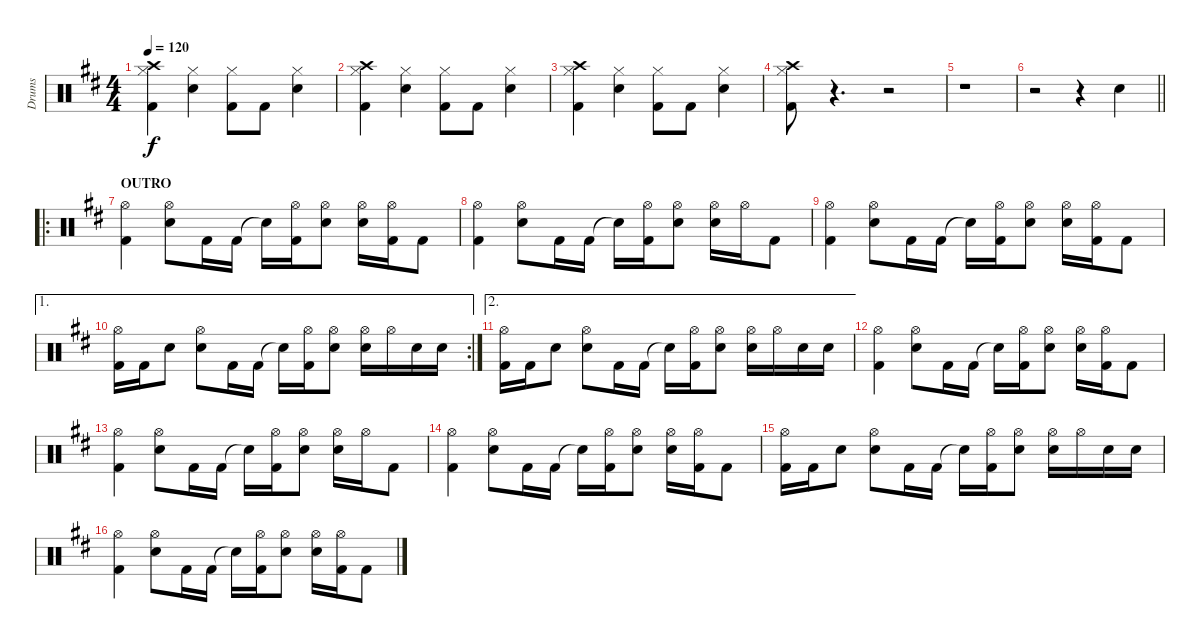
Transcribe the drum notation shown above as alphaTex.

\track ("Drums" "Drums") {instrument percussion}
\staff {score}
\articulation defaults
\ts (4 4)
\tempo 120
\clef neutral
\ks d
("Crash high (hit)" "Hi-Hat (closed)" "Kick (hit) 2").4{dy f} ("Hi-Hat (closed)" "Electric Snare (hit)").4 ("Hi-Hat (closed)" "Kick (hit) 2").8 "Kick (hit) 2".8 ("Hi-Hat (closed)" "Electric Snare (hit)").4 |
("Crash high (hit)" "Hi-Hat (closed)" "Kick (hit) 2").4 ("Hi-Hat (closed)" "Electric Snare (hit)").4 ("Hi-Hat (closed)" "Kick (hit) 2").8 "Kick (hit) 2".8 ("Hi-Hat (closed)" "Electric Snare (hit)").4 |
("Crash high (hit)" "Hi-Hat (closed)" "Kick (hit) 2").4 ("Hi-Hat (closed)" "Electric Snare (hit)").4 ("Hi-Hat (closed)" "Kick (hit) 2").8 "Kick (hit) 2".8 ("Hi-Hat (closed)" "Electric Snare (hit)").4 |
("Crash high (hit)" "Hi-Hat (closed)" "Kick (hit) 2").8 r.4{d} r.2 |
r.1 |
\barLineRight lightlight
r.2 r.4 "Electric Snare (hit)".4 |
\ro
\section ("" "OUTRO")
("Hi-Hat (open)" "Kick (hit) 2").4 ("Hi-Hat (open)" "Electric Snare (hit)").8 "Kick (hit) 2".16 "Kick (hit) 2".16 "Snare (hit)"{t}.16 ("Hi-Hat (open)" "Kick (hit) 2").16 ("Hi-Hat (open)" "Electric Snare (hit)").8 ("Hi-Hat (open)" "Electric Snare (hit)").16 ("Hi-Hat (open)" "Kick (hit) 2").16 "Kick (hit) 2".8 |
("Hi-Hat (open)" "Kick (hit) 2").4 ("Hi-Hat (open)" "Electric Snare (hit)").8 "Kick (hit) 2".16 "Kick (hit) 2".16 "Snare (hit)"{t}.16 ("Hi-Hat (open)" "Kick (hit) 2").16 ("Hi-Hat (open)" "Electric Snare (hit)").8 ("Hi-Hat (open)" "Electric Snare (hit)").16 "Hi-Hat (open)".16 "Kick (hit) 2".8 |
("Hi-Hat (open)" "Kick (hit) 2").4 ("Hi-Hat (open)" "Electric Snare (hit)").8 "Kick (hit) 2".16 "Kick (hit) 2".16 "Snare (hit)"{t}.16 ("Hi-Hat (open)" "Kick (hit) 2").16 ("Hi-Hat (open)" "Electric Snare (hit)").8 ("Hi-Hat (open)" "Electric Snare (hit)").16 ("Hi-Hat (open)" "Kick (hit) 2").16 "Kick (hit) 2".8 |
\ae 1
\rc 2
("Hi-Hat (open)" "Kick (hit) 2").16 "Kick (hit) 2".16 "Electric Snare (hit)".8 ("Hi-Hat (open)" "Electric Snare (hit)").8 "Kick (hit) 2".16 "Kick (hit) 2".16 "Snare (hit)"{t}.16 ("Hi-Hat (open)" "Kick (hit) 2").16 ("Hi-Hat (open)" "Electric Snare (hit)").8 ("Hi-Hat (open)" "Electric Snare (hit)").16 "Hi-Hat (open)".16 "Electric Snare (hit)".16 "Electric Snare (hit)".16 |
\ae 2
("Hi-Hat (open)" "Kick (hit) 2").16 "Kick (hit) 2".16 "Electric Snare (hit)".8 ("Hi-Hat (open)" "Electric Snare (hit)").8 "Kick (hit) 2".16 "Kick (hit) 2".16 "Snare (hit)"{t}.16 ("Hi-Hat (open)" "Kick (hit) 2").16 ("Hi-Hat (open)" "Electric Snare (hit)").8 ("Hi-Hat (open)" "Electric Snare (hit)").16 "Hi-Hat (open)".16 "Electric Snare (hit)".16 "Electric Snare (hit)".16 |
("Hi-Hat (open)" "Kick (hit) 2").4 ("Hi-Hat (open)" "Electric Snare (hit)").8 "Kick (hit) 2".16 "Kick (hit) 2".16 "Snare (hit)"{t}.16 ("Hi-Hat (open)" "Kick (hit) 2").16 ("Hi-Hat (open)" "Electric Snare (hit)").8 ("Hi-Hat (open)" "Electric Snare (hit)").16 ("Hi-Hat (open)" "Kick (hit) 2").16 "Kick (hit) 2".8 |
("Hi-Hat (open)" "Kick (hit) 2").4 ("Hi-Hat (open)" "Electric Snare (hit)").8 "Kick (hit) 2".16 "Kick (hit) 2".16 "Snare (hit)"{t}.16 ("Hi-Hat (open)" "Kick (hit) 2").16 ("Hi-Hat (open)" "Electric Snare (hit)").8 ("Hi-Hat (open)" "Electric Snare (hit)").16 "Hi-Hat (open)".16 "Kick (hit) 2".8 |
("Hi-Hat (open)" "Kick (hit) 2").4 ("Hi-Hat (open)" "Electric Snare (hit)").8 "Kick (hit) 2".16 "Kick (hit) 2".16 "Snare (hit)"{t}.16 ("Hi-Hat (open)" "Kick (hit) 2").16 ("Hi-Hat (open)" "Electric Snare (hit)").8 ("Hi-Hat (open)" "Electric Snare (hit)").16 ("Hi-Hat (open)" "Kick (hit) 2").16 "Kick (hit) 2".8 |
("Hi-Hat (open)" "Kick (hit) 2").16 "Kick (hit) 2".16 "Electric Snare (hit)".8 ("Hi-Hat (open)" "Electric Snare (hit)").8 "Kick (hit) 2".16 "Kick (hit) 2".16 "Snare (hit)"{t}.16 ("Hi-Hat (open)" "Kick (hit) 2").16 ("Hi-Hat (open)" "Electric Snare (hit)").8 ("Hi-Hat (open)" "Electric Snare (hit)").16 "Hi-Hat (open)".16 "Electric Snare (hit)".16 "Electric Snare (hit)".16 |
("Hi-Hat (open)" "Kick (hit) 2").4 ("Hi-Hat (open)" "Electric Snare (hit)").8 "Kick (hit) 2".16 "Kick (hit) 2".16 "Snare (hit)"{t}.16 ("Hi-Hat (open)" "Kick (hit) 2").16 ("Hi-Hat (open)" "Electric Snare (hit)").8 ("Hi-Hat (open)" "Electric Snare (hit)").16 ("Hi-Hat (open)" "Kick (hit) 2").16 "Kick (hit) 2".8
